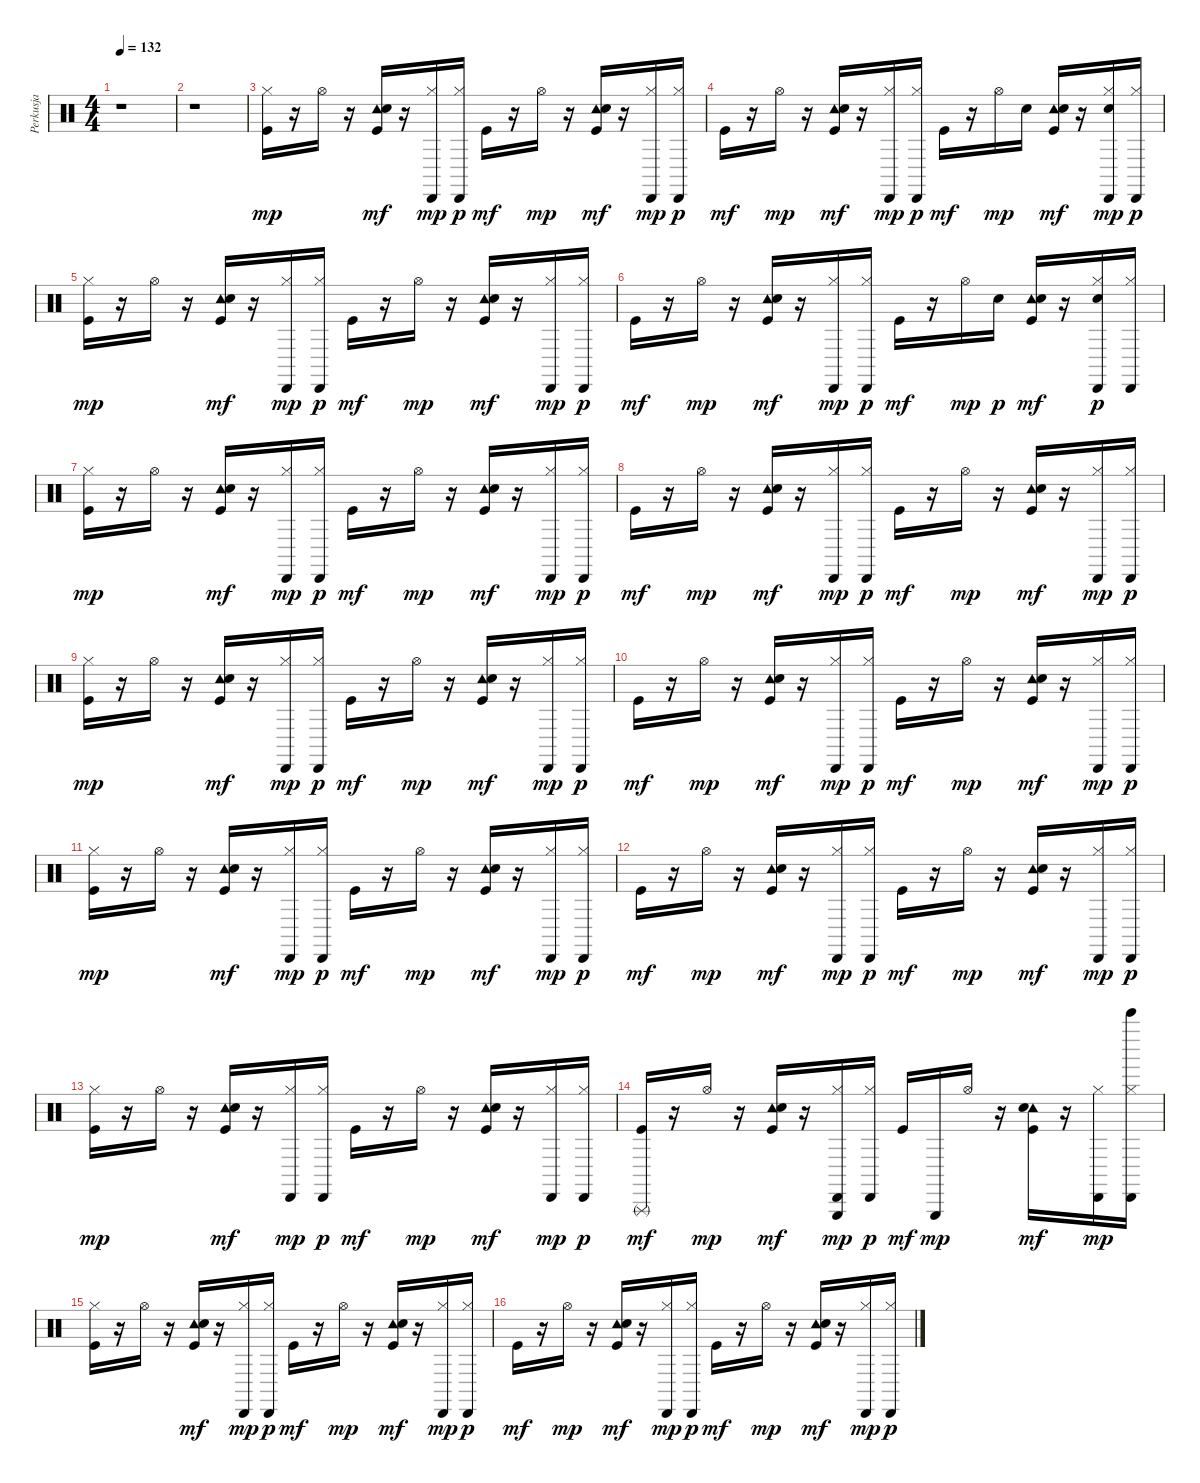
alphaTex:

\track ("Perkusja" "Perkusja") {instrument percussion}
\staff {score}
\articulation defaults
\ts (4 4)
\tempo 132
\clef neutral
\ks c
r.1{dy mp} |
r.1 |
("Kick (hit)" "Hi-Hat (closed)").16 r.16 "Hi-Hat (open)".16 r.16 ("Tambourine (hit)" "Snare (hit) 2" "Kick (hit)").16{dy mf} r.16 ("Cabasa (hit)" "Hi-Hat (closed)").16{dy mp} ("Cabasa (hit)" "Hi-Hat (closed)").16{dy p} "Kick (hit)".16{dy mf} r.16 "Hi-Hat (open)".16{dy mp} r.16 ("Tambourine (hit)" "Snare (hit) 2" "Kick (hit)").16{dy mf} r.16 ("Cabasa (hit)" "Hi-Hat (closed)").16{dy mp} ("Cabasa (hit)" "Hi-Hat (closed)").16{dy p} |
"Kick (hit)".16{dy mf} r.16 "Hi-Hat (open)".16{dy mp} r.16 ("Tambourine (hit)" "Snare (hit) 2" "Kick (hit)").16{dy mf} r.16 ("Cabasa (hit)" "Hi-Hat (closed)").16{dy mp} ("Cabasa (hit)" "Hi-Hat (closed)").16{dy p} "Kick (hit)".16{dy mf} r.16 "Hi-Hat (open)".16{dy mp} "Hand Clap (hit)".16 ("Tambourine (hit)" "Snare (hit) 2" "Kick (hit)").16{dy mf} r.16 ("Hand Clap (hit)" "Cabasa (hit)" "Hi-Hat (closed)").16{dy mp} ("Cabasa (hit)" "Hi-Hat (closed)").16{dy p} |
("Kick (hit)" "Hi-Hat (closed)").16{dy mp} r.16 "Hi-Hat (open)".16 r.16 ("Tambourine (hit)" "Snare (hit) 2" "Kick (hit)").16{dy mf} r.16 ("Cabasa (hit)" "Hi-Hat (closed)").16{dy mp} ("Cabasa (hit)" "Hi-Hat (closed)").16{dy p} "Kick (hit)".16{dy mf} r.16 "Hi-Hat (open)".16{dy mp} r.16 ("Tambourine (hit)" "Snare (hit) 2" "Kick (hit)").16{dy mf} r.16 ("Cabasa (hit)" "Hi-Hat (closed)").16{dy mp} ("Cabasa (hit)" "Hi-Hat (closed)").16{dy p} |
"Kick (hit)".16{dy mf} r.16 "Hi-Hat (open)".16{dy mp} r.16 ("Tambourine (hit)" "Snare (hit) 2" "Kick (hit)").16{dy mf} r.16 ("Cabasa (hit)" "Hi-Hat (closed)").16{dy mp} ("Cabasa (hit)" "Hi-Hat (closed)").16{dy p} "Kick (hit)".16{dy mf} r.16 "Hi-Hat (open)".16{dy mp} "Hand Clap (hit)".16{dy p} ("Tambourine (hit)" "Snare (hit) 2" "Kick (hit)").16{dy mf} r.16 ("Cabasa (hit)" "Hi-Hat (closed)" "Hand Clap (hit)").16{dy p} ("Cabasa (hit)" "Hi-Hat (closed)").16 |
("Kick (hit)" "Hi-Hat (closed)").16{dy mp} r.16 "Hi-Hat (open)".16 r.16 ("Tambourine (hit)" "Snare (hit) 2" "Kick (hit)").16{dy mf} r.16 ("Cabasa (hit)" "Hi-Hat (closed)").16{dy mp} ("Cabasa (hit)" "Hi-Hat (closed)").16{dy p} "Kick (hit)".16{dy mf} r.16 "Hi-Hat (open)".16{dy mp} r.16 ("Tambourine (hit)" "Snare (hit) 2" "Kick (hit)").16{dy mf} r.16 ("Cabasa (hit)" "Hi-Hat (closed)").16{dy mp} ("Cabasa (hit)" "Hi-Hat (closed)").16{dy p} |
"Kick (hit)".16{dy mf} r.16 "Hi-Hat (open)".16{dy mp} r.16 ("Tambourine (hit)" "Snare (hit) 2" "Kick (hit)").16{dy mf} r.16 ("Cabasa (hit)" "Hi-Hat (closed)").16{dy mp} ("Cabasa (hit)" "Hi-Hat (closed)").16{dy p} "Kick (hit)".16{dy mf} r.16 "Hi-Hat (open)".16{dy mp} r.16 ("Tambourine (hit)" "Snare (hit) 2" "Kick (hit)").16{dy mf} r.16 ("Cabasa (hit)" "Hi-Hat (closed)").16{dy mp} ("Cabasa (hit)" "Hi-Hat (closed)").16{dy p} |
("Kick (hit)" "Hi-Hat (closed)").16{dy mp} r.16 "Hi-Hat (open)".16 r.16 ("Tambourine (hit)" "Snare (hit) 2" "Kick (hit)").16{dy mf} r.16 ("Cabasa (hit)" "Hi-Hat (closed)").16{dy mp} ("Cabasa (hit)" "Hi-Hat (closed)").16{dy p} "Kick (hit)".16{dy mf} r.16 "Hi-Hat (open)".16{dy mp} r.16 ("Tambourine (hit)" "Snare (hit) 2" "Kick (hit)").16{dy mf} r.16 ("Cabasa (hit)" "Hi-Hat (closed)").16{dy mp} ("Cabasa (hit)" "Hi-Hat (closed)").16{dy p} |
"Kick (hit)".16{dy mf} r.16 "Hi-Hat (open)".16{dy mp} r.16 ("Tambourine (hit)" "Snare (hit) 2" "Kick (hit)").16{dy mf} r.16 ("Cabasa (hit)" "Hi-Hat (closed)").16{dy mp} ("Cabasa (hit)" "Hi-Hat (closed)").16{dy p} "Kick (hit)".16{dy mf} r.16 "Hi-Hat (open)".16{dy mp} r.16 ("Tambourine (hit)" "Snare (hit) 2" "Kick (hit)").16{dy mf} r.16 ("Cabasa (hit)" "Hi-Hat (closed)").16{dy mp} ("Cabasa (hit)" "Hi-Hat (closed)").16{dy p} |
("Kick (hit)" "Hi-Hat (closed)").16{dy mp} r.16 "Hi-Hat (open)".16 r.16 ("Tambourine (hit)" "Snare (hit) 2" "Kick (hit)").16{dy mf} r.16 ("Cabasa (hit)" "Hi-Hat (closed)").16{dy mp} ("Cabasa (hit)" "Hi-Hat (closed)").16{dy p} "Kick (hit)".16{dy mf} r.16 "Hi-Hat (open)".16{dy mp} r.16 ("Tambourine (hit)" "Snare (hit) 2" "Kick (hit)").16{dy mf} r.16 ("Cabasa (hit)" "Hi-Hat (closed)").16{dy mp} ("Cabasa (hit)" "Hi-Hat (closed)").16{dy p} |
"Kick (hit)".16{dy mf} r.16 "Hi-Hat (open)".16{dy mp} r.16 ("Tambourine (hit)" "Snare (hit) 2" "Kick (hit)").16{dy mf} r.16 ("Cabasa (hit)" "Hi-Hat (closed)").16{dy mp} ("Cabasa (hit)" "Hi-Hat (closed)").16{dy p} "Kick (hit)".16{dy mf} r.16 "Hi-Hat (open)".16{dy mp} r.16 ("Tambourine (hit)" "Snare (hit) 2" "Kick (hit)").16{dy mf} r.16 ("Cabasa (hit)" "Hi-Hat (closed)").16{dy mp} ("Cabasa (hit)" "Hi-Hat (closed)").16{dy p} |
("Kick (hit)" "Hi-Hat (closed)").16{dy mp} r.16 "Hi-Hat (open)".16 r.16 ("Tambourine (hit)" "Snare (hit) 2" "Kick (hit)").16{dy mf} r.16 ("Cabasa (hit)" "Hi-Hat (closed)").16{dy mp} ("Cabasa (hit)" "Hi-Hat (closed)").16{dy p} "Kick (hit)".16{dy mf} r.16 "Hi-Hat (open)".16{dy mp} r.16 ("Tambourine (hit)" "Snare (hit) 2" "Kick (hit)").16{dy mf} r.16 ("Cabasa (hit)" "Hi-Hat (closed)").16{dy mp} ("Cabasa (hit)" "Hi-Hat (closed)").16{dy p} |
("Triangle (rnute)" "Kick (hit)").16{dy mf} r.16 "Hi-Hat (open)".16{dy mp} r.16 ("Tambourine (hit)" "Snare (hit) 2" "Kick (hit)").16{dy mf} r.16 ("Triangle (hit)" "Cabasa (hit)" "Hi-Hat (closed)").16{dy mp} ("Cabasa (hit)" "Hi-Hat (closed)").16{dy p} "Kick (hit)".16{dy mf} "Triangle (hit)".16{dy mp} "Hi-Hat (open)".16 r.16 ("Tambourine (hit)" "Snare (hit) 2" "Kick (hit)").16{dy mf} r.16 ("Cabasa (hit)" "Hi-Hat (closed)").16{dy mp} ("Cabasa (hit)" "Hi-Hat (closed)" "Bell Tree (hit)").16 |
("Kick (hit)" "Hi-Hat (closed)").16 r.16 "Hi-Hat (open)".16 r.16 ("Tambourine (hit)" "Snare (hit) 2" "Kick (hit)").16{dy mf} r.16 ("Cabasa (hit)" "Hi-Hat (closed)").16{dy mp} ("Cabasa (hit)" "Hi-Hat (closed)").16{dy p} "Kick (hit)".16{dy mf} r.16 "Hi-Hat (open)".16{dy mp} r.16 ("Tambourine (hit)" "Snare (hit) 2" "Kick (hit)").16{dy mf} r.16 ("Cabasa (hit)" "Hi-Hat (closed)").16{dy mp} ("Cabasa (hit)" "Hi-Hat (closed)").16{dy p} |
"Kick (hit)".16{dy mf} r.16 "Hi-Hat (open)".16{dy mp} r.16 ("Tambourine (hit)" "Snare (hit) 2" "Kick (hit)").16{dy mf} r.16 ("Cabasa (hit)" "Hi-Hat (closed)").16{dy mp} ("Cabasa (hit)" "Hi-Hat (closed)").16{dy p} "Kick (hit)".16{dy mf} r.16 "Hi-Hat (open)".16{dy mp} r.16 ("Tambourine (hit)" "Snare (hit) 2" "Kick (hit)").16{dy mf} r.16 ("Cabasa (hit)" "Hi-Hat (closed)").16{dy mp} ("Cabasa (hit)" "Hi-Hat (closed)").16{dy p}
